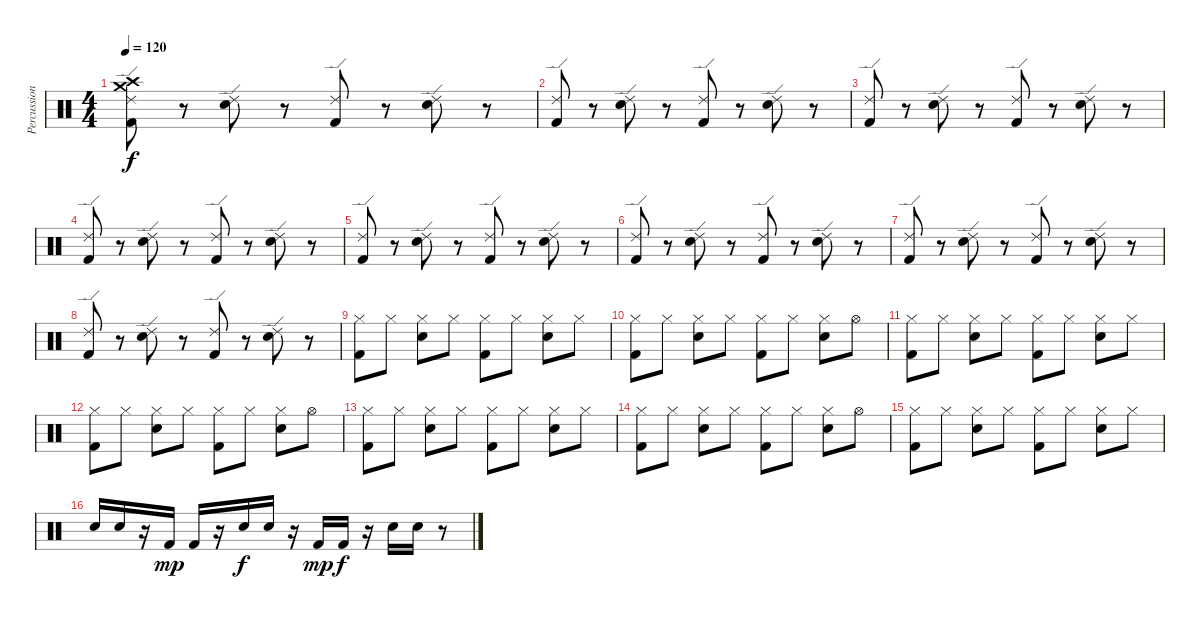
\track ("Percussion" "Percussion") {instrument percussion}
\staff {score}
\articulation defaults
\ts (4 4)
\tempo 120
\clef neutral
\ks c
("Crash high (hit)" "Crash medium (hit)" "Kick (hit) 2" "Ride (edge) 2").8{dy f} r.8 ("Electric Snare (hit)" "Ride (edge) 2").8 r.8 ("Kick (hit) 2" "Ride (edge) 2").8 r.8 ("Electric Snare (hit)" "Ride (edge) 2").8 r.8 |
("Kick (hit) 2" "Ride (edge) 2").8 r.8 ("Electric Snare (hit)" "Ride (edge) 2").8 r.8 ("Kick (hit) 2" "Ride (edge) 2").8 r.8 ("Electric Snare (hit)" "Ride (edge) 2").8 r.8 |
("Kick (hit) 2" "Ride (edge) 2").8 r.8 ("Electric Snare (hit)" "Ride (edge) 2").8 r.8 ("Kick (hit) 2" "Ride (edge) 2").8 r.8 ("Electric Snare (hit)" "Ride (edge) 2").8 r.8 |
("Kick (hit) 2" "Ride (edge) 2").8 r.8 ("Electric Snare (hit)" "Ride (edge) 2").8 r.8 ("Kick (hit) 2" "Ride (edge) 2").8 r.8 ("Electric Snare (hit)" "Ride (edge) 2").8 r.8 |
("Kick (hit) 2" "Ride (edge) 2").8 r.8 ("Electric Snare (hit)" "Ride (edge) 2").8 r.8 ("Kick (hit) 2" "Ride (edge) 2").8 r.8 ("Electric Snare (hit)" "Ride (edge) 2").8 r.8 |
("Kick (hit) 2" "Ride (edge) 2").8 r.8 ("Electric Snare (hit)" "Ride (edge) 2").8 r.8 ("Kick (hit) 2" "Ride (edge) 2").8 r.8 ("Electric Snare (hit)" "Ride (edge) 2").8 r.8 |
("Kick (hit) 2" "Ride (edge) 2").8 r.8 ("Electric Snare (hit)" "Ride (edge) 2").8 r.8 ("Kick (hit) 2" "Ride (edge) 2").8 r.8 ("Electric Snare (hit)" "Ride (edge) 2").8 r.8 |
("Kick (hit) 2" "Ride (edge) 2").8 r.8 ("Electric Snare (hit)" "Ride (edge) 2").8 r.8 ("Kick (hit) 2" "Ride (edge) 2").8 r.8 ("Electric Snare (hit)" "Ride (edge) 2").8 r.8 |
("Kick (hit) 2" "Hi-Hat (closed)").8 "Hi-Hat (closed)".8 ("Electric Snare (hit)" "Hi-Hat (closed)").8 "Hi-Hat (closed)".8 ("Kick (hit) 2" "Hi-Hat (closed)").8 "Hi-Hat (closed)".8 ("Electric Snare (hit)" "Hi-Hat (closed)").8 "Hi-Hat (closed)".8 |
("Kick (hit) 2" "Hi-Hat (closed)").8 "Hi-Hat (closed)".8 ("Electric Snare (hit)" "Hi-Hat (closed)").8 "Hi-Hat (closed)".8 ("Kick (hit) 2" "Hi-Hat (closed)").8 "Hi-Hat (closed)".8 ("Electric Snare (hit)" "Hi-Hat (closed)").8 "Hi-Hat (open)".8 |
("Kick (hit) 2" "Hi-Hat (closed)").8 "Hi-Hat (closed)".8 ("Electric Snare (hit)" "Hi-Hat (closed)").8 "Hi-Hat (closed)".8 ("Kick (hit) 2" "Hi-Hat (closed)").8 "Hi-Hat (closed)".8 ("Electric Snare (hit)" "Hi-Hat (closed)").8 "Hi-Hat (closed)".8 |
("Kick (hit) 2" "Hi-Hat (closed)").8 "Hi-Hat (closed)".8 ("Electric Snare (hit)" "Hi-Hat (closed)").8 "Hi-Hat (closed)".8 ("Kick (hit) 2" "Hi-Hat (closed)").8 "Hi-Hat (closed)".8 ("Electric Snare (hit)" "Hi-Hat (closed)").8 "Hi-Hat (open)".8 |
("Kick (hit) 2" "Hi-Hat (closed)").8 "Hi-Hat (closed)".8 ("Electric Snare (hit)" "Hi-Hat (closed)").8 "Hi-Hat (closed)".8 ("Kick (hit) 2" "Hi-Hat (closed)").8 "Hi-Hat (closed)".8 ("Electric Snare (hit)" "Hi-Hat (closed)").8 "Hi-Hat (closed)".8 |
("Kick (hit) 2" "Hi-Hat (closed)").8 "Hi-Hat (closed)".8 ("Electric Snare (hit)" "Hi-Hat (closed)").8 "Hi-Hat (closed)".8 ("Kick (hit) 2" "Hi-Hat (closed)").8 "Hi-Hat (closed)".8 ("Electric Snare (hit)" "Hi-Hat (closed)").8 "Hi-Hat (open)".8 |
("Kick (hit) 2" "Hi-Hat (closed)").8 "Hi-Hat (closed)".8 ("Electric Snare (hit)" "Hi-Hat (closed)").8 "Hi-Hat (closed)".8 ("Kick (hit) 2" "Hi-Hat (closed)").8 "Hi-Hat (closed)".8 ("Electric Snare (hit)" "Hi-Hat (closed)").8 "Hi-Hat (closed)".8 |
"Electric Snare (hit)".16 "Electric Snare (hit)".16 r.16 "Kick (hit) 2".16{dy mp} "Kick (hit) 2".16 r.16 "Electric Snare (hit)".16{dy f} "Electric Snare (hit)".16 r.16 "Kick (hit) 2".16{dy mp} "Kick (hit) 2".16{dy f} r.16 "Electric Snare (hit)".16 "Electric Snare (hit)".16 r.8
